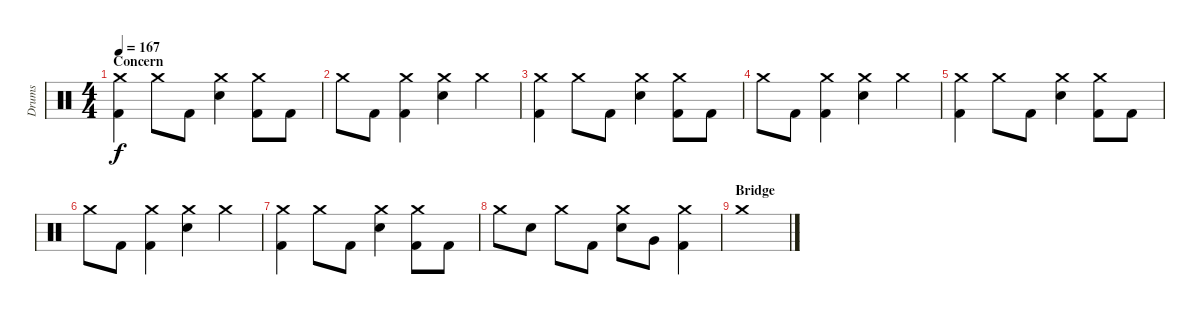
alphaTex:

\track ("Drums" "Drums") {instrument percussion}
\staff {score}
\articulation defaults
\ts (4 4)
\section ("" "Concern")
\tempo 167
\clef neutral
\ks c
("Crash medium (hit)" "Kick (hit) 2").4{dy f} "Crash medium (hit)".8 "Kick (hit) 2".8 ("Crash medium (hit)" "Electric Snare (hit)").4 ("Crash medium (hit)" "Kick (hit) 2").8 "Kick (hit) 2".8 |
"Crash medium (hit)".8 "Kick (hit) 2".8 ("Crash medium (hit)" "Kick (hit) 2").4 ("Crash medium (hit)" "Electric Snare (hit)").4 "Crash medium (hit)".4 |
("Crash medium (hit)" "Kick (hit) 2").4 "Crash medium (hit)".8 "Kick (hit) 2".8 ("Crash medium (hit)" "Electric Snare (hit)").4 ("Crash medium (hit)" "Kick (hit) 2").8 "Kick (hit) 2".8 |
"Crash medium (hit)".8 "Kick (hit) 2".8 ("Crash medium (hit)" "Kick (hit) 2").4 ("Crash medium (hit)" "Electric Snare (hit)").4 "Crash medium (hit)".4 |
("Crash medium (hit)" "Kick (hit) 2").4 "Crash medium (hit)".8 "Kick (hit) 2".8 ("Crash medium (hit)" "Electric Snare (hit)").4 ("Crash medium (hit)" "Kick (hit) 2").8 "Kick (hit) 2".8 |
"Crash medium (hit)".8 "Kick (hit) 2".8 ("Crash medium (hit)" "Kick (hit) 2").4 ("Crash medium (hit)" "Electric Snare (hit)").4 "Crash medium (hit)".4 |
("Crash medium (hit)" "Kick (hit) 2").4 "Crash medium (hit)".8 "Kick (hit) 2".8 ("Crash medium (hit)" "Electric Snare (hit)").4 ("Crash medium (hit)" "Kick (hit) 2").8 "Kick (hit) 2".8 |
"Crash medium (hit)".8 "Electric Snare (hit)".8 "Crash medium (hit)".8 "Kick (hit) 2".8 ("Crash medium (hit)" "Electric Snare (hit)").8 "Very Low Tom (hit)".8 ("Crash medium (hit)" "Kick (hit) 2").4 |
\section ("" "Bridge")
"Crash medium (hit)".1
